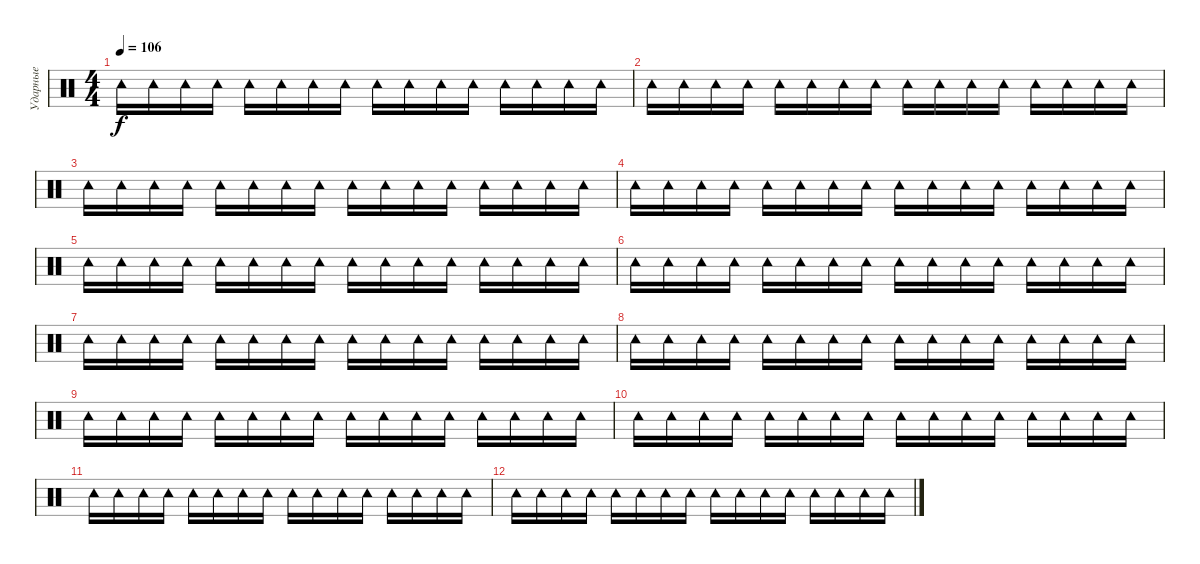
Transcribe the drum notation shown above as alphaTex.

\track ("Ударные" "Ударные") {instrument percussion}
\staff {score}
\articulation defaults
\ts (4 4)
\tempo 106
\clef neutral
\ks c "Tambourine (hit)".16{dy f} "Tambourine (hit)".16 "Tambourine (hit)".16 "Tambourine (hit)".16 "Tambourine (hit)".16 "Tambourine (hit)".16 "Tambourine (hit)".16 "Tambourine (hit)".16 "Tambourine (hit)".16 "Tambourine (hit)".16 "Tambourine (hit)".16 "Tambourine (hit)".16 "Tambourine (hit)".16 "Tambourine (hit)".16 "Tambourine (hit)".16 "Tambourine (hit)".16
|
"Tambourine (hit)".16 "Tambourine (hit)".16 "Tambourine (hit)".16 "Tambourine (hit)".16 "Tambourine (hit)".16 "Tambourine (hit)".16 "Tambourine (hit)".16 "Tambourine (hit)".16 "Tambourine (hit)".16 "Tambourine (hit)".16 "Tambourine (hit)".16 "Tambourine (hit)".16 "Tambourine (hit)".16 "Tambourine (hit)".16 "Tambourine (hit)".16 "Tambourine (hit)".16 |
"Tambourine (hit)".16 "Tambourine (hit)".16 "Tambourine (hit)".16 "Tambourine (hit)".16 "Tambourine (hit)".16 "Tambourine (hit)".16 "Tambourine (hit)".16 "Tambourine (hit)".16 "Tambourine (hit)".16 "Tambourine (hit)".16 "Tambourine (hit)".16 "Tambourine (hit)".16 "Tambourine (hit)".16 "Tambourine (hit)".16 "Tambourine (hit)".16 "Tambourine (hit)".16 |
"Tambourine (hit)".16 "Tambourine (hit)".16 "Tambourine (hit)".16 "Tambourine (hit)".16 "Tambourine (hit)".16 "Tambourine (hit)".16 "Tambourine (hit)".16 "Tambourine (hit)".16 "Tambourine (hit)".16 "Tambourine (hit)".16 "Tambourine (hit)".16 "Tambourine (hit)".16 "Tambourine (hit)".16 "Tambourine (hit)".16 "Tambourine (hit)".16 "Tambourine (hit)".16 |
"Tambourine (hit)".16 "Tambourine (hit)".16 "Tambourine (hit)".16 "Tambourine (hit)".16 "Tambourine (hit)".16 "Tambourine (hit)".16 "Tambourine (hit)".16 "Tambourine (hit)".16 "Tambourine (hit)".16 "Tambourine (hit)".16 "Tambourine (hit)".16 "Tambourine (hit)".16 "Tambourine (hit)".16 "Tambourine (hit)".16 "Tambourine (hit)".16 "Tambourine (hit)".16 |
"Tambourine (hit)".16 "Tambourine (hit)".16 "Tambourine (hit)".16 "Tambourine (hit)".16 "Tambourine (hit)".16 "Tambourine (hit)".16 "Tambourine (hit)".16 "Tambourine (hit)".16 "Tambourine (hit)".16 "Tambourine (hit)".16 "Tambourine (hit)".16 "Tambourine (hit)".16 "Tambourine (hit)".16 "Tambourine (hit)".16 "Tambourine (hit)".16 "Tambourine (hit)".16 |
"Tambourine (hit)".16 "Tambourine (hit)".16 "Tambourine (hit)".16 "Tambourine (hit)".16 "Tambourine (hit)".16 "Tambourine (hit)".16 "Tambourine (hit)".16 "Tambourine (hit)".16 "Tambourine (hit)".16 "Tambourine (hit)".16 "Tambourine (hit)".16 "Tambourine (hit)".16 "Tambourine (hit)".16 "Tambourine (hit)".16 "Tambourine (hit)".16 "Tambourine (hit)".16 |
"Tambourine (hit)".16 "Tambourine (hit)".16 "Tambourine (hit)".16 "Tambourine (hit)".16 "Tambourine (hit)".16 "Tambourine (hit)".16 "Tambourine (hit)".16 "Tambourine (hit)".16 "Tambourine (hit)".16 "Tambourine (hit)".16 "Tambourine (hit)".16 "Tambourine (hit)".16 "Tambourine (hit)".16 "Tambourine (hit)".16 "Tambourine (hit)".16 "Tambourine (hit)".16 |
"Tambourine (hit)".16 "Tambourine (hit)".16 "Tambourine (hit)".16 "Tambourine (hit)".16 "Tambourine (hit)".16 "Tambourine (hit)".16 "Tambourine (hit)".16 "Tambourine (hit)".16 "Tambourine (hit)".16 "Tambourine (hit)".16 "Tambourine (hit)".16 "Tambourine (hit)".16 "Tambourine (hit)".16 "Tambourine (hit)".16 "Tambourine (hit)".16 "Tambourine (hit)".16 |
"Tambourine (hit)".16 "Tambourine (hit)".16 "Tambourine (hit)".16 "Tambourine (hit)".16 "Tambourine (hit)".16 "Tambourine (hit)".16 "Tambourine (hit)".16 "Tambourine (hit)".16 "Tambourine (hit)".16 "Tambourine (hit)".16 "Tambourine (hit)".16 "Tambourine (hit)".16 "Tambourine (hit)".16 "Tambourine (hit)".16 "Tambourine (hit)".16 "Tambourine (hit)".16 |
"Tambourine (hit)".16 "Tambourine (hit)".16 "Tambourine (hit)".16 "Tambourine (hit)".16 "Tambourine (hit)".16 "Tambourine (hit)".16 "Tambourine (hit)".16 "Tambourine (hit)".16 "Tambourine (hit)".16 "Tambourine (hit)".16 "Tambourine (hit)".16 "Tambourine (hit)".16 "Tambourine (hit)".16 "Tambourine (hit)".16 "Tambourine (hit)".16 "Tambourine (hit)".16 |
"Tambourine (hit)".16 "Tambourine (hit)".16 "Tambourine (hit)".16 "Tambourine (hit)".16 "Tambourine (hit)".16 "Tambourine (hit)".16 "Tambourine (hit)".16 "Tambourine (hit)".16 "Tambourine (hit)".16 "Tambourine (hit)".16 "Tambourine (hit)".16 "Tambourine (hit)".16 "Tambourine (hit)".16 "Tambourine (hit)".16 "Tambourine (hit)".16 "Tambourine (hit)".16
